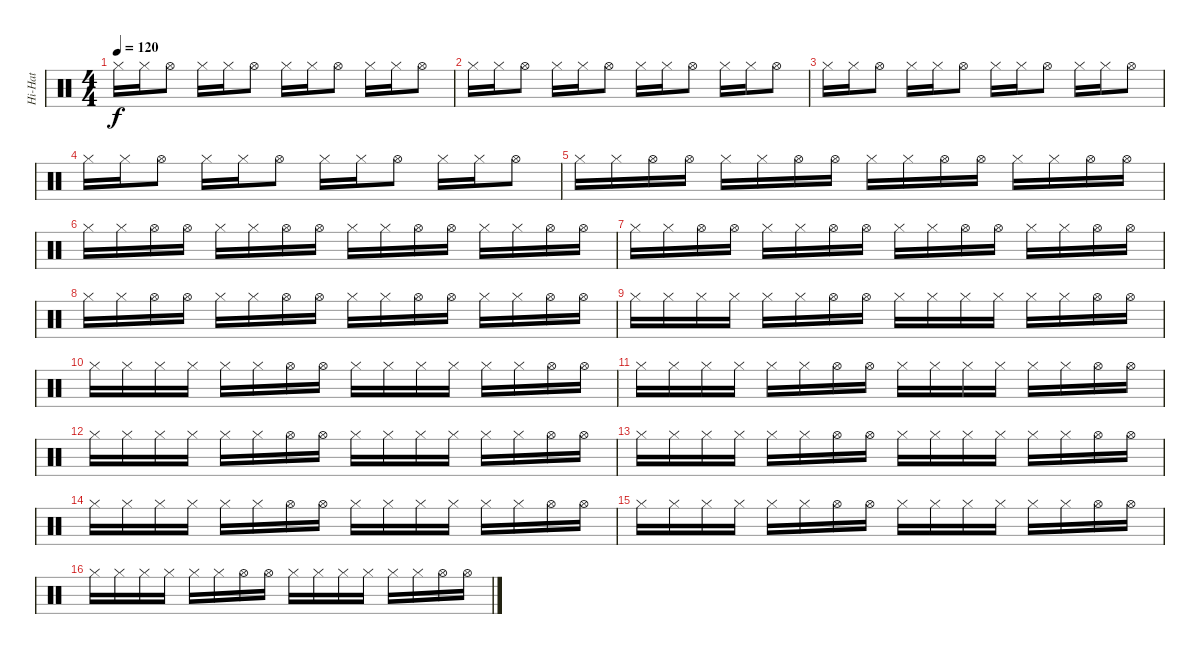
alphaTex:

\track ("Hi-Hat" "Hi-Hat") {instrument percussion}
\staff {score}
\articulation defaults
\ts (4 4)
\tempo 120
\clef neutral
\ks c "Hi-Hat (closed)".16{dy f} "Hi-Hat (closed)".16 "Hi-Hat (open)".8 "Hi-Hat (closed)".16 "Hi-Hat (closed)".16 "Hi-Hat (open)".8 "Hi-Hat (closed)".16 "Hi-Hat (closed)".16 "Hi-Hat (open)".8 "Hi-Hat (closed)".16 "Hi-Hat (closed)".16 "Hi-Hat (open)".8
|
"Hi-Hat (closed)".16 "Hi-Hat (closed)".16 "Hi-Hat (open)".8 "Hi-Hat (closed)".16 "Hi-Hat (closed)".16 "Hi-Hat (open)".8 "Hi-Hat (closed)".16 "Hi-Hat (closed)".16 "Hi-Hat (open)".8 "Hi-Hat (closed)".16 "Hi-Hat (closed)".16 "Hi-Hat (open)".8 |
"Hi-Hat (closed)".16 "Hi-Hat (closed)".16 "Hi-Hat (open)".8 "Hi-Hat (closed)".16 "Hi-Hat (closed)".16 "Hi-Hat (open)".8 "Hi-Hat (closed)".16 "Hi-Hat (closed)".16 "Hi-Hat (open)".8 "Hi-Hat (closed)".16 "Hi-Hat (closed)".16 "Hi-Hat (open)".8 |
"Hi-Hat (closed)".16 "Hi-Hat (closed)".16 "Hi-Hat (open)".8 "Hi-Hat (closed)".16 "Hi-Hat (closed)".16 "Hi-Hat (open)".8 "Hi-Hat (closed)".16 "Hi-Hat (closed)".16 "Hi-Hat (open)".8 "Hi-Hat (closed)".16 "Hi-Hat (closed)".16 "Hi-Hat (open)".8 |
"Hi-Hat (closed)".16 "Hi-Hat (closed)".16 "Hi-Hat (open)".16 "Hi-Hat (open)".16 "Hi-Hat (closed)".16 "Hi-Hat (closed)".16 "Hi-Hat (open)".16 "Hi-Hat (open)".16 "Hi-Hat (closed)".16 "Hi-Hat (closed)".16 "Hi-Hat (open)".16 "Hi-Hat (open)".16 "Hi-Hat (closed)".16 "Hi-Hat (closed)".16 "Hi-Hat (open)".16 "Hi-Hat (open)".16 |
"Hi-Hat (closed)".16 "Hi-Hat (closed)".16 "Hi-Hat (open)".16 "Hi-Hat (open)".16 "Hi-Hat (closed)".16 "Hi-Hat (closed)".16 "Hi-Hat (open)".16 "Hi-Hat (open)".16 "Hi-Hat (closed)".16 "Hi-Hat (closed)".16 "Hi-Hat (open)".16 "Hi-Hat (open)".16 "Hi-Hat (closed)".16 "Hi-Hat (closed)".16 "Hi-Hat (open)".16 "Hi-Hat (open)".16 |
"Hi-Hat (closed)".16 "Hi-Hat (closed)".16 "Hi-Hat (open)".16 "Hi-Hat (open)".16 "Hi-Hat (closed)".16 "Hi-Hat (closed)".16 "Hi-Hat (open)".16 "Hi-Hat (open)".16 "Hi-Hat (closed)".16 "Hi-Hat (closed)".16 "Hi-Hat (open)".16 "Hi-Hat (open)".16 "Hi-Hat (closed)".16 "Hi-Hat (closed)".16 "Hi-Hat (open)".16 "Hi-Hat (open)".16 |
"Hi-Hat (closed)".16 "Hi-Hat (closed)".16 "Hi-Hat (open)".16 "Hi-Hat (open)".16 "Hi-Hat (closed)".16 "Hi-Hat (closed)".16 "Hi-Hat (open)".16 "Hi-Hat (open)".16 "Hi-Hat (closed)".16 "Hi-Hat (closed)".16 "Hi-Hat (open)".16 "Hi-Hat (open)".16 "Hi-Hat (closed)".16 "Hi-Hat (closed)".16 "Hi-Hat (open)".16 "Hi-Hat (open)".16 |
"Hi-Hat (closed)".16 "Hi-Hat (closed)".16 "Hi-Hat (closed)".16 "Hi-Hat (closed)".16 "Hi-Hat (closed)".16 "Hi-Hat (closed)".16 "Hi-Hat (open)".16 "Hi-Hat (open)".16 "Hi-Hat (closed)".16 "Hi-Hat (closed)".16 "Hi-Hat (closed)".16 "Hi-Hat (closed)".16 "Hi-Hat (closed)".16 "Hi-Hat (closed)".16 "Hi-Hat (open)".16 "Hi-Hat (open)".16 |
"Hi-Hat (closed)".16 "Hi-Hat (closed)".16 "Hi-Hat (closed)".16 "Hi-Hat (closed)".16 "Hi-Hat (closed)".16 "Hi-Hat (closed)".16 "Hi-Hat (open)".16 "Hi-Hat (open)".16 "Hi-Hat (closed)".16 "Hi-Hat (closed)".16 "Hi-Hat (closed)".16 "Hi-Hat (closed)".16 "Hi-Hat (closed)".16 "Hi-Hat (closed)".16 "Hi-Hat (open)".16 "Hi-Hat (open)".16 |
"Hi-Hat (closed)".16 "Hi-Hat (closed)".16 "Hi-Hat (closed)".16 "Hi-Hat (closed)".16 "Hi-Hat (closed)".16 "Hi-Hat (closed)".16 "Hi-Hat (open)".16 "Hi-Hat (open)".16 "Hi-Hat (closed)".16 "Hi-Hat (closed)".16 "Hi-Hat (closed)".16 "Hi-Hat (closed)".16 "Hi-Hat (closed)".16 "Hi-Hat (closed)".16 "Hi-Hat (open)".16 "Hi-Hat (open)".16 |
"Hi-Hat (closed)".16 "Hi-Hat (closed)".16 "Hi-Hat (closed)".16 "Hi-Hat (closed)".16 "Hi-Hat (closed)".16 "Hi-Hat (closed)".16 "Hi-Hat (open)".16 "Hi-Hat (open)".16 "Hi-Hat (closed)".16 "Hi-Hat (closed)".16 "Hi-Hat (closed)".16 "Hi-Hat (closed)".16 "Hi-Hat (closed)".16 "Hi-Hat (closed)".16 "Hi-Hat (open)".16 "Hi-Hat (open)".16 |
"Hi-Hat (closed)".16 "Hi-Hat (closed)".16 "Hi-Hat (closed)".16 "Hi-Hat (closed)".16 "Hi-Hat (closed)".16 "Hi-Hat (closed)".16 "Hi-Hat (open)".16 "Hi-Hat (open)".16 "Hi-Hat (closed)".16 "Hi-Hat (closed)".16 "Hi-Hat (closed)".16 "Hi-Hat (closed)".16 "Hi-Hat (closed)".16 "Hi-Hat (closed)".16 "Hi-Hat (open)".16 "Hi-Hat (open)".16 |
"Hi-Hat (closed)".16 "Hi-Hat (closed)".16 "Hi-Hat (closed)".16 "Hi-Hat (closed)".16 "Hi-Hat (closed)".16 "Hi-Hat (closed)".16 "Hi-Hat (open)".16 "Hi-Hat (open)".16 "Hi-Hat (closed)".16 "Hi-Hat (closed)".16 "Hi-Hat (closed)".16 "Hi-Hat (closed)".16 "Hi-Hat (closed)".16 "Hi-Hat (closed)".16 "Hi-Hat (open)".16 "Hi-Hat (open)".16 |
"Hi-Hat (closed)".16 "Hi-Hat (closed)".16 "Hi-Hat (closed)".16 "Hi-Hat (closed)".16 "Hi-Hat (closed)".16 "Hi-Hat (closed)".16 "Hi-Hat (open)".16 "Hi-Hat (open)".16 "Hi-Hat (closed)".16 "Hi-Hat (closed)".16 "Hi-Hat (closed)".16 "Hi-Hat (closed)".16 "Hi-Hat (closed)".16 "Hi-Hat (closed)".16 "Hi-Hat (open)".16 "Hi-Hat (open)".16 |
"Hi-Hat (closed)".16 "Hi-Hat (closed)".16 "Hi-Hat (closed)".16 "Hi-Hat (closed)".16 "Hi-Hat (closed)".16 "Hi-Hat (closed)".16 "Hi-Hat (open)".16 "Hi-Hat (open)".16 "Hi-Hat (closed)".16 "Hi-Hat (closed)".16 "Hi-Hat (closed)".16 "Hi-Hat (closed)".16 "Hi-Hat (closed)".16 "Hi-Hat (closed)".16 "Hi-Hat (open)".16 "Hi-Hat (open)".16
